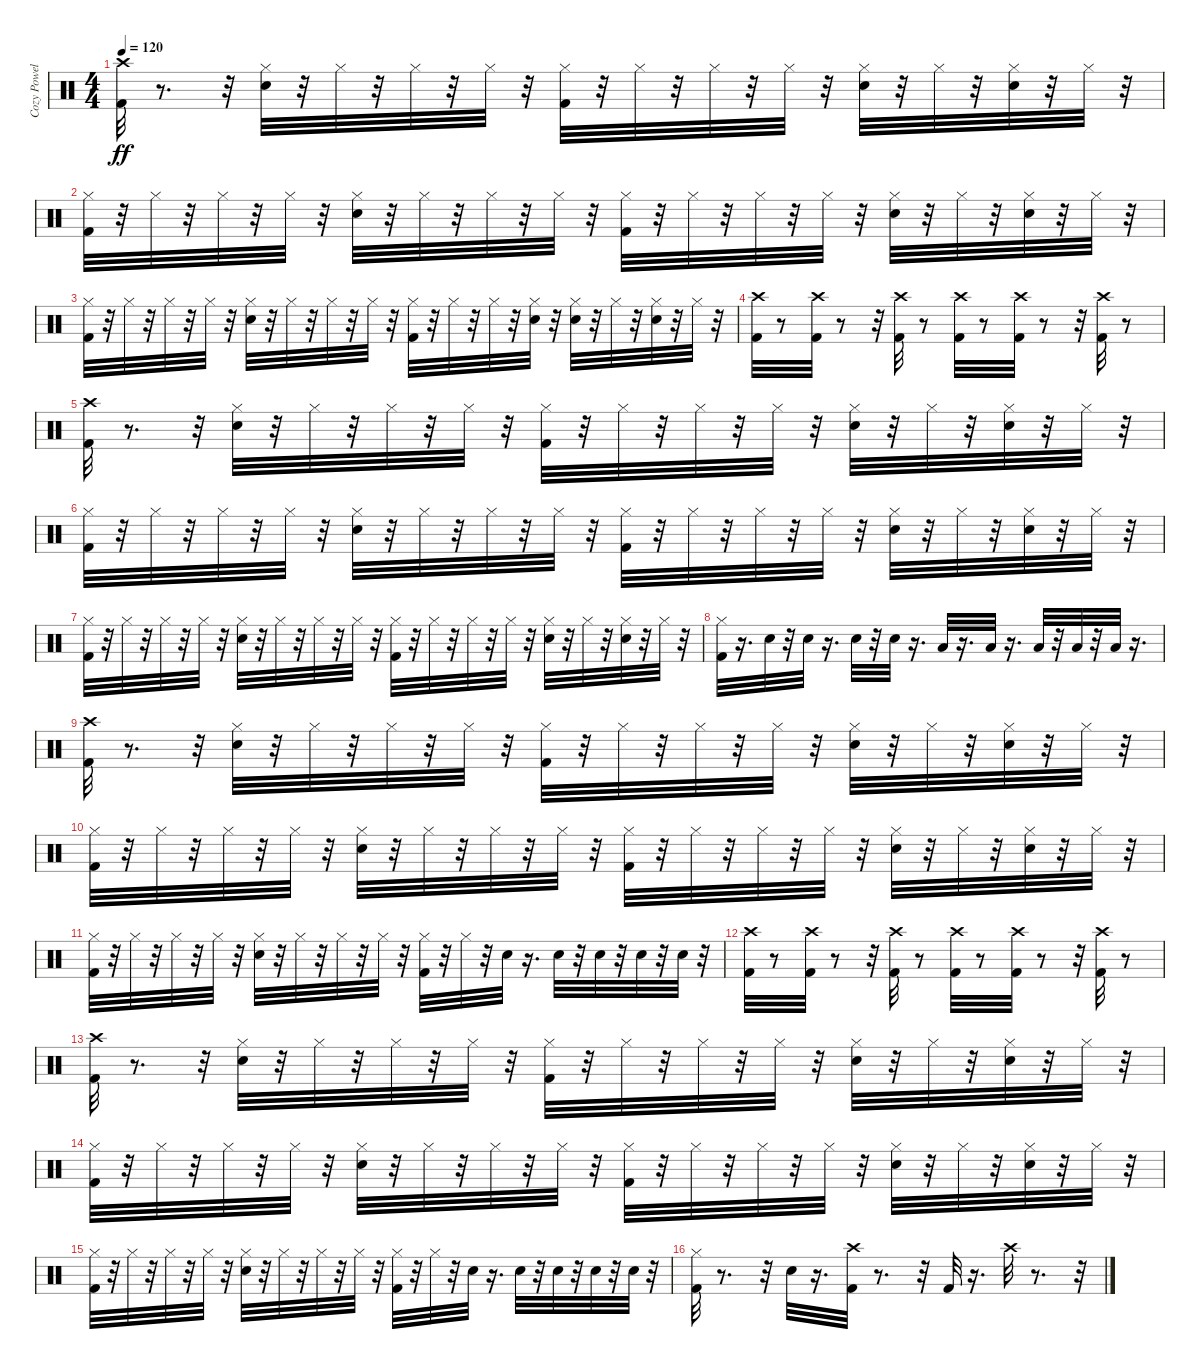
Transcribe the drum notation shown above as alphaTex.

\track ("Cozy Powel" "Cozy Powel") {instrument percussion}
\staff {score}
\articulation defaults
\ts (4 4)
\tempo 120
\clef neutral
\ks c
("Kick (hit) 2" "Crash high (hit)").32{dy ff} r.8{d} r.32 ("Snare (hit) 2" "Hi-Hat (closed)").32 r.32 "Hi-Hat (closed)".32 r.32 "Hi-Hat (closed)".32 r.32 "Hi-Hat (closed)".32 r.32 ("Kick (hit) 2" "Hi-Hat (closed)").32 r.32 "Hi-Hat (closed)".32 r.32 "Hi-Hat (closed)".32 r.32 "Hi-Hat (closed)".32 r.32 ("Snare (hit) 2" "Hi-Hat (closed)").32 r.32 "Hi-Hat (closed)".32 r.32 ("Snare (hit) 2" "Hi-Hat (closed)").32 r.32 "Hi-Hat (closed)".32 r.32 |
("Kick (hit) 2" "Hi-Hat (closed)").32 r.32 "Hi-Hat (closed)".32 r.32 "Hi-Hat (closed)".32 r.32 "Hi-Hat (closed)".32 r.32 ("Snare (hit) 2" "Hi-Hat (closed)").32 r.32 "Hi-Hat (closed)".32 r.32 "Hi-Hat (closed)".32 r.32 "Hi-Hat (closed)".32 r.32 ("Kick (hit) 2" "Hi-Hat (closed)").32 r.32 "Hi-Hat (closed)".32 r.32 "Hi-Hat (closed)".32 r.32 "Hi-Hat (closed)".32 r.32 ("Snare (hit) 2" "Hi-Hat (closed)").32 r.32 "Hi-Hat (closed)".32 r.32 ("Snare (hit) 2" "Hi-Hat (closed)").32 r.32 "Hi-Hat (closed)".32 r.32 |
("Kick (hit) 2" "Hi-Hat (closed)").32 r.32 "Hi-Hat (closed)".32 r.32 "Hi-Hat (closed)".32 r.32 "Hi-Hat (closed)".32 r.32 ("Snare (hit) 2" "Hi-Hat (closed)").32 r.32 "Hi-Hat (closed)".32 r.32 "Hi-Hat (closed)".32 r.32 "Hi-Hat (closed)".32 r.32 ("Kick (hit) 2" "Hi-Hat (closed)").32 r.32 "Hi-Hat (closed)".32 r.32 "Hi-Hat (closed)".32 r.32 ("Hi-Hat (closed)" "Snare (hit) 2").32 r.32 ("Snare (hit) 2" "Hi-Hat (closed)").32 r.32 "Hi-Hat (closed)".32 r.32 ("Snare (hit) 2" "Hi-Hat (closed)").32 r.32 "Hi-Hat (closed)".32 r.32 |
("Kick (hit) 2" "Crash high (hit)").32 r.8 ("Kick (hit) 2" "Crash high (hit)").32 r.8 r.32 ("Kick (hit) 2" "Crash high (hit)").32 r.8 ("Kick (hit) 2" "Crash high (hit)").32 r.8 ("Kick (hit) 2" "Crash high (hit)").32 r.8 r.32 ("Kick (hit) 2" "Crash high (hit)").32 r.8 |
("Kick (hit) 2" "Crash high (hit)").32 r.8{d} r.32 ("Snare (hit) 2" "Hi-Hat (closed)").32 r.32 "Hi-Hat (closed)".32 r.32 "Hi-Hat (closed)".32 r.32 "Hi-Hat (closed)".32 r.32 ("Kick (hit) 2" "Hi-Hat (closed)").32 r.32 "Hi-Hat (closed)".32 r.32 "Hi-Hat (closed)".32 r.32 "Hi-Hat (closed)".32 r.32 ("Snare (hit) 2" "Hi-Hat (closed)").32 r.32 "Hi-Hat (closed)".32 r.32 ("Snare (hit) 2" "Hi-Hat (closed)").32 r.32 "Hi-Hat (closed)".32 r.32 |
("Kick (hit) 2" "Hi-Hat (closed)").32 r.32 "Hi-Hat (closed)".32 r.32 "Hi-Hat (closed)".32 r.32 "Hi-Hat (closed)".32 r.32 ("Snare (hit) 2" "Hi-Hat (closed)").32 r.32 "Hi-Hat (closed)".32 r.32 "Hi-Hat (closed)".32 r.32 "Hi-Hat (closed)".32 r.32 ("Kick (hit) 2" "Hi-Hat (closed)").32 r.32 "Hi-Hat (closed)".32 r.32 "Hi-Hat (closed)".32 r.32 "Hi-Hat (closed)".32 r.32 ("Snare (hit) 2" "Hi-Hat (closed)").32 r.32 "Hi-Hat (closed)".32 r.32 ("Snare (hit) 2" "Hi-Hat (closed)").32 r.32 "Hi-Hat (closed)".32 r.32 |
("Kick (hit) 2" "Hi-Hat (closed)").32 r.32 "Hi-Hat (closed)".32 r.32 "Hi-Hat (closed)".32 r.32 "Hi-Hat (closed)".32 r.32 ("Snare (hit) 2" "Hi-Hat (closed)").32 r.32 "Hi-Hat (closed)".32 r.32 "Hi-Hat (closed)".32 r.32 "Hi-Hat (closed)".32 r.32 ("Kick (hit) 2" "Hi-Hat (closed)").32 r.32 "Hi-Hat (closed)".32 r.32 "Hi-Hat (closed)".32 r.32 "Hi-Hat (closed)".32 r.32 ("Snare (hit) 2" "Hi-Hat (closed)").32 r.32 "Hi-Hat (closed)".32 r.32 ("Snare (hit) 2" "Hi-Hat (closed)").32 r.32 "Hi-Hat (closed)".32 r.32 |
("Kick (hit) 2" "Hi-Hat (closed)").32 r.16{d} "Snare (hit) 2".32 r.32 "Snare (hit) 2".32 r.16{d} "Snare (hit) 2".32 r.32 "Snare (hit) 2".32 r.16{d} "Low Tom (hit)".32 r.16{d} "Low Tom (hit)".32 r.16{d} "Low Tom (hit)".32 r.32 "Low Tom (hit)".32 r.32 "Low Tom (hit)".32 r.16{d} |
("Kick (hit) 2" "Crash high (hit)").32 r.8{d} r.32 ("Snare (hit) 2" "Hi-Hat (closed)").32 r.32 "Hi-Hat (closed)".32 r.32 "Hi-Hat (closed)".32 r.32 "Hi-Hat (closed)".32 r.32 ("Kick (hit) 2" "Hi-Hat (closed)").32 r.32 "Hi-Hat (closed)".32 r.32 "Hi-Hat (closed)".32 r.32 "Hi-Hat (closed)".32 r.32 ("Snare (hit) 2" "Hi-Hat (closed)").32 r.32 "Hi-Hat (closed)".32 r.32 ("Snare (hit) 2" "Hi-Hat (closed)").32 r.32 "Hi-Hat (closed)".32 r.32 |
("Kick (hit) 2" "Hi-Hat (closed)").32 r.32 "Hi-Hat (closed)".32 r.32 "Hi-Hat (closed)".32 r.32 "Hi-Hat (closed)".32 r.32 ("Snare (hit) 2" "Hi-Hat (closed)").32 r.32 "Hi-Hat (closed)".32 r.32 "Hi-Hat (closed)".32 r.32 "Hi-Hat (closed)".32 r.32 ("Kick (hit) 2" "Hi-Hat (closed)").32 r.32 "Hi-Hat (closed)".32 r.32 "Hi-Hat (closed)".32 r.32 "Hi-Hat (closed)".32 r.32 ("Snare (hit) 2" "Hi-Hat (closed)").32 r.32 "Hi-Hat (closed)".32 r.32 ("Snare (hit) 2" "Hi-Hat (closed)").32 r.32 "Hi-Hat (closed)".32 r.32 |
("Kick (hit) 2" "Hi-Hat (closed)").32 r.32 "Hi-Hat (closed)".32 r.32 "Hi-Hat (closed)".32 r.32 "Hi-Hat (closed)".32 r.32 ("Snare (hit) 2" "Hi-Hat (closed)").32 r.32 "Hi-Hat (closed)".32 r.32 "Hi-Hat (closed)".32 r.32 "Hi-Hat (closed)".32 r.32 ("Kick (hit) 2" "Hi-Hat (closed)").32 r.32 "Hi-Hat (closed)".32 r.32 "Snare (hit) 2".32 r.16{d} "Snare (hit) 2".32 r.32 "Snare (hit) 2".32 r.32 "Snare (hit) 2".32 r.32 "Snare (hit) 2".32 r.32 |
("Kick (hit) 2" "Crash high (hit)").32 r.8 ("Kick (hit) 2" "Crash high (hit)").32 r.8 r.32 ("Kick (hit) 2" "Crash high (hit)").32 r.8 ("Kick (hit) 2" "Crash high (hit)").32 r.8 ("Kick (hit) 2" "Crash high (hit)").32 r.8 r.32 ("Kick (hit) 2" "Crash high (hit)").32 r.8 |
("Kick (hit) 2" "Crash high (hit)").32 r.8{d} r.32 ("Snare (hit) 2" "Hi-Hat (closed)").32 r.32 "Hi-Hat (closed)".32 r.32 "Hi-Hat (closed)".32 r.32 "Hi-Hat (closed)".32 r.32 ("Kick (hit) 2" "Hi-Hat (closed)").32 r.32 "Hi-Hat (closed)".32 r.32 "Hi-Hat (closed)".32 r.32 "Hi-Hat (closed)".32 r.32 ("Snare (hit) 2" "Hi-Hat (closed)").32 r.32 "Hi-Hat (closed)".32 r.32 ("Snare (hit) 2" "Hi-Hat (closed)").32 r.32 "Hi-Hat (closed)".32 r.32 |
("Kick (hit) 2" "Hi-Hat (closed)").32 r.32 "Hi-Hat (closed)".32 r.32 "Hi-Hat (closed)".32 r.32 "Hi-Hat (closed)".32 r.32 ("Snare (hit) 2" "Hi-Hat (closed)").32 r.32 "Hi-Hat (closed)".32 r.32 "Hi-Hat (closed)".32 r.32 "Hi-Hat (closed)".32 r.32 ("Kick (hit) 2" "Hi-Hat (closed)").32 r.32 "Hi-Hat (closed)".32 r.32 "Hi-Hat (closed)".32 r.32 "Hi-Hat (closed)".32 r.32 ("Snare (hit) 2" "Hi-Hat (closed)").32 r.32 "Hi-Hat (closed)".32 r.32 ("Snare (hit) 2" "Hi-Hat (closed)").32 r.32 "Hi-Hat (closed)".32 r.32 |
("Kick (hit) 2" "Hi-Hat (closed)").32 r.32 "Hi-Hat (closed)".32 r.32 "Hi-Hat (closed)".32 r.32 "Hi-Hat (closed)".32 r.32 ("Snare (hit) 2" "Hi-Hat (closed)").32 r.32 "Hi-Hat (closed)".32 r.32 "Hi-Hat (closed)".32 r.32 "Hi-Hat (closed)".32 r.32 ("Kick (hit) 2" "Hi-Hat (closed)").32 r.32 "Hi-Hat (closed)".32 r.32 "Snare (hit) 2".32 r.16{d} "Snare (hit) 2".32 r.32 "Snare (hit) 2".32 r.32 "Snare (hit) 2".32 r.32 "Snare (hit) 2".32 r.32 |
("Kick (hit) 2" "Hi-Hat (closed)").32 r.8{d} r.32 "Snare (hit) 2".32 r.16{d} ("Crash high (hit)" "Kick (hit) 2").32 r.8{d} r.32 "Kick (hit) 2".32 r.16{d} "Crash high (hit)".32 r.8{d} r.32
